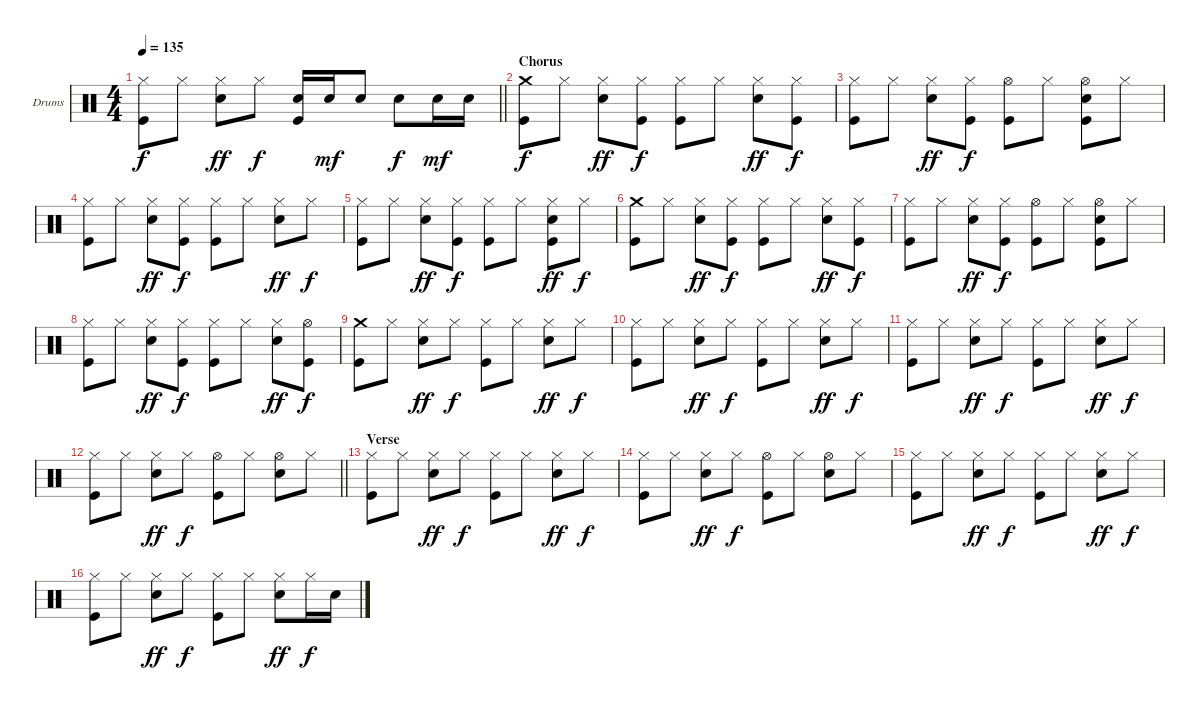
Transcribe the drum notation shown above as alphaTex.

\bracketExtendMode groupsimilarinstruments
\firstSystemTrackNameOrientation horizontal
\otherSystemsTrackNameOrientation horizontal
\track ("Drumkit" "Drums") {instrument percussion}
\staff {score}
\articulation defaults
\ts (4 4)
\tempo 135
\clef neutral
\barLineRight lightlight
\ks c
("Hi-Hat (closed)" "Kick (hit)").8{dy f} "Hi-Hat (closed)".8 ("Hi-Hat (closed)" "Snare (hit) 2").8{dy ff} "Hi-Hat (closed)".8{dy f} ("Snare (hit) 2" "Kick (hit)").16 "Snare (hit) 2".16{dy mf} "Snare (hit) 2".8 "Snare (hit) 2".8{dy f} "Snare (hit) 2".16{dy mf} "Snare (hit) 2".16 |
\section ("" "Chorus")
("Crash medium (hit)" "Kick (hit)").8{dy f} "Hi-Hat (closed)".8 ("Hi-Hat (closed)" "Snare (hit) 2").8{dy ff} ("Hi-Hat (closed)" "Kick (hit)").8{dy f} ("Hi-Hat (closed)" "Kick (hit)").8 "Hi-Hat (closed)".8 ("Hi-Hat (closed)" "Snare (hit) 2").8{dy ff} ("Hi-Hat (closed)" "Kick (hit)").8{dy f} |
("Hi-Hat (closed)" "Kick (hit)").8 "Hi-Hat (closed)".8 ("Hi-Hat (closed)" "Snare (hit) 2").8{dy ff} ("Hi-Hat (closed)" "Kick (hit)").8{dy f} ("Hi-Hat (open)" "Kick (hit)").8 "Hi-Hat (closed)".8 ("Hi-Hat (open)" "Snare (hit) 2" "Kick (hit)").8 "Hi-Hat (closed)".8 |
("Hi-Hat (closed)" "Kick (hit)").8 "Hi-Hat (closed)".8 ("Hi-Hat (closed)" "Snare (hit) 2").8{dy ff} ("Hi-Hat (closed)" "Kick (hit)").8{dy f} ("Hi-Hat (closed)" "Kick (hit)").8 "Hi-Hat (closed)".8 ("Hi-Hat (closed)" "Snare (hit) 2").8{dy ff} "Hi-Hat (closed)".8{dy f} |
("Hi-Hat (closed)" "Kick (hit)").8 "Hi-Hat (closed)".8 ("Hi-Hat (closed)" "Snare (hit) 2").8{dy ff} ("Hi-Hat (closed)" "Kick (hit)").8{dy f} ("Hi-Hat (closed)" "Kick (hit)").8 "Hi-Hat (closed)".8 ("Hi-Hat (closed)" "Snare (hit) 2" "Kick (hit)").8{dy ff} "Hi-Hat (closed)".8{dy f} |
("Crash medium (hit)" "Kick (hit)").8 "Hi-Hat (closed)".8 ("Hi-Hat (closed)" "Snare (hit) 2").8{dy ff} ("Hi-Hat (closed)" "Kick (hit)").8{dy f} ("Hi-Hat (closed)" "Kick (hit)").8 "Hi-Hat (closed)".8 ("Hi-Hat (closed)" "Snare (hit) 2").8{dy ff} ("Hi-Hat (closed)" "Kick (hit)").8{dy f} |
("Hi-Hat (closed)" "Kick (hit)").8 "Hi-Hat (closed)".8 ("Hi-Hat (closed)" "Snare (hit) 2").8{dy ff} ("Hi-Hat (closed)" "Kick (hit)").8{dy f} ("Hi-Hat (open)" "Kick (hit)").8 "Hi-Hat (closed)".8 ("Hi-Hat (open)" "Snare (hit) 2" "Kick (hit)").8 "Hi-Hat (closed)".8 |
("Hi-Hat (closed)" "Kick (hit)").8 "Hi-Hat (closed)".8 ("Hi-Hat (closed)" "Snare (hit) 2").8{dy ff} ("Hi-Hat (closed)" "Kick (hit)").8{dy f} ("Hi-Hat (closed)" "Kick (hit)").8 "Hi-Hat (closed)".8 ("Hi-Hat (closed)" "Snare (hit) 2").8{dy ff} ("Hi-Hat (open)" "Kick (hit)").8{dy f} |
("Crash medium (hit)" "Kick (hit)").8 "Hi-Hat (closed)".8 ("Hi-Hat (closed)" "Snare (hit) 2").8{dy ff} "Hi-Hat (closed)".8{dy f} ("Hi-Hat (closed)" "Kick (hit)").8 "Hi-Hat (closed)".8 ("Hi-Hat (closed)" "Snare (hit) 2").8{dy ff} "Hi-Hat (closed)".8{dy f} |
("Hi-Hat (closed)" "Kick (hit)").8 "Hi-Hat (closed)".8 ("Hi-Hat (closed)" "Snare (hit) 2").8{dy ff} "Hi-Hat (closed)".8{dy f} ("Hi-Hat (closed)" "Kick (hit)").8 "Hi-Hat (closed)".8 ("Hi-Hat (closed)" "Snare (hit) 2").8{dy ff} "Hi-Hat (closed)".8{dy f} |
("Hi-Hat (closed)" "Kick (hit)").8 "Hi-Hat (closed)".8 ("Hi-Hat (closed)" "Snare (hit) 2").8{dy ff} "Hi-Hat (closed)".8{dy f} ("Hi-Hat (closed)" "Kick (hit)").8 "Hi-Hat (closed)".8 ("Hi-Hat (closed)" "Snare (hit) 2").8{dy ff} "Hi-Hat (closed)".8{dy f} |
\barLineRight lightlight
("Hi-Hat (closed)" "Kick (hit)").8 "Hi-Hat (closed)".8 ("Hi-Hat (closed)" "Snare (hit) 2").8{dy ff} "Hi-Hat (closed)".8{dy f} ("Hi-Hat (open)" "Kick (hit)").8 "Hi-Hat (closed)".8 ("Hi-Hat (open)" "Snare (hit) 2").8 "Hi-Hat (closed)".8 |
\section ("" "Verse")
("Hi-Hat (closed)" "Kick (hit)").8 "Hi-Hat (closed)".8 ("Hi-Hat (closed)" "Snare (hit) 2").8{dy ff} "Hi-Hat (closed)".8{dy f} ("Hi-Hat (closed)" "Kick (hit)").8 "Hi-Hat (closed)".8 ("Hi-Hat (closed)" "Snare (hit) 2").8{dy ff} "Hi-Hat (closed)".8{dy f} |
("Hi-Hat (closed)" "Kick (hit)").8 "Hi-Hat (closed)".8 ("Hi-Hat (closed)" "Snare (hit) 2").8{dy ff} "Hi-Hat (closed)".8{dy f} ("Hi-Hat (open)" "Kick (hit)").8 "Hi-Hat (closed)".8 ("Hi-Hat (open)" "Snare (hit) 2").8 "Hi-Hat (closed)".8 |
("Hi-Hat (closed)" "Kick (hit)").8 "Hi-Hat (closed)".8 ("Hi-Hat (closed)" "Snare (hit) 2").8{dy ff} "Hi-Hat (closed)".8{dy f} ("Hi-Hat (closed)" "Kick (hit)").8 "Hi-Hat (closed)".8 ("Hi-Hat (closed)" "Snare (hit) 2").8{dy ff} "Hi-Hat (closed)".8{dy f} |
("Hi-Hat (closed)" "Kick (hit)").8 "Hi-Hat (closed)".8 ("Hi-Hat (closed)" "Snare (hit) 2").8{dy ff} "Hi-Hat (closed)".8{dy f} ("Hi-Hat (closed)" "Kick (hit)").8 "Hi-Hat (closed)".8 ("Hi-Hat (closed)" "Snare (hit) 2").8{dy ff} "Hi-Hat (closed)".16{dy f} "Snare (hit) 2".16
